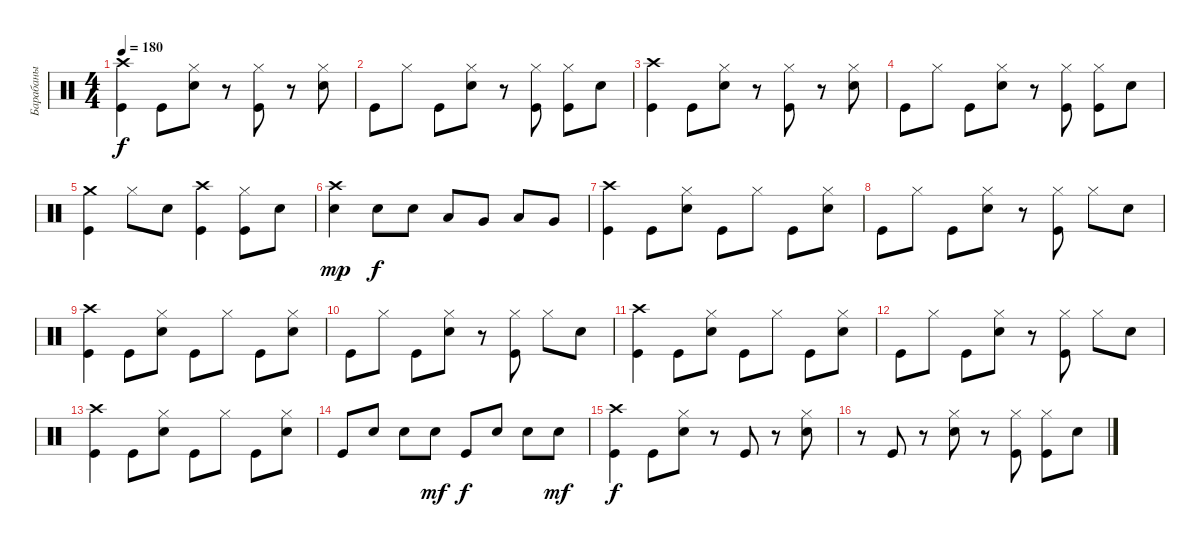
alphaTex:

\track ("Барабаны" "Барабаны") {instrument percussion}
\staff {score}
\articulation defaults
\ts (4 4)
\tempo 180
\clef neutral
\ks c
("Kick (hit)" "Crash high (hit)").4{dy f} "Kick (hit)".8 ("Hi-Hat (closed)" "Electric Snare (hit)").8 r.8 ("Kick (hit)" "Hi-Hat (closed)").8 r.8 ("Hi-Hat (closed)" "Electric Snare (hit)").8 |
"Kick (hit)".8 "Hi-Hat (closed)".8 "Kick (hit)".8 ("Hi-Hat (closed)" "Electric Snare (hit)").8 r.8 ("Hi-Hat (closed)" "Kick (hit)").8 ("Hi-Hat (closed)" "Kick (hit)").8 "Electric Snare (hit)".8 |
("Crash high (hit)" "Kick (hit)").4 "Kick (hit)".8 ("Electric Snare (hit)" "Hi-Hat (closed)").8 r.8 ("Kick (hit)" "Hi-Hat (closed)").8 r.8 ("Hi-Hat (closed)" "Electric Snare (hit)").8 |
"Kick (hit)".8 "Hi-Hat (closed)".8 "Kick (hit)".8 ("Electric Snare (hit)" "Hi-Hat (closed)").8 r.8 ("Hi-Hat (closed)" "Kick (hit)").8 ("Hi-Hat (closed)" "Kick (hit)").8 "Electric Snare (hit)".8 |
("Crash medium (hit)" "Kick (hit)").4 "Hi-Hat (closed)".8 "Electric Snare (hit)".8 ("Kick (hit)" "Crash high (hit)").4 ("Kick (hit)" "Hi-Hat (closed)").8 "Electric Snare (hit)".8 |
("Crash high (hit)" "Electric Snare (hit)").4{dy mp} "Electric Snare (hit)".8{dy f} "Electric Snare (hit)".8 "Low Tom (hit)".8 "Very Low Tom (hit)".8 "Low Floor Tom (hit)".8 "Very Low Tom (hit)".8 |
("Crash high (hit)" "Kick (hit)").4 "Kick (hit)".8 ("Hi-Hat (closed)" "Electric Snare (hit)").8 "Kick (hit)".8 "Hi-Hat (closed)".8 "Kick (hit)".8 ("Electric Snare (hit)" "Hi-Hat (closed)").8 |
"Kick (hit)".8 "Hi-Hat (closed)".8 "Kick (hit)".8 ("Hi-Hat (closed)" "Electric Snare (hit)").8 r.8 ("Kick (hit)" "Hi-Hat (closed)").8 "Hi-Hat (closed)".8 "Electric Snare (hit)".8 |
("Kick (hit)" "Crash high (hit)").4 "Kick (hit)".8 ("Hi-Hat (closed)" "Electric Snare (hit)").8 "Kick (hit)".8 "Hi-Hat (closed)".8 "Kick (hit)".8 ("Hi-Hat (closed)" "Electric Snare (hit)").8 |
"Kick (hit)".8 "Hi-Hat (closed)".8 "Kick (hit)".8 ("Hi-Hat (closed)" "Electric Snare (hit)").8 r.8 ("Hi-Hat (closed)" "Kick (hit)").8 "Hi-Hat (closed)".8 "Electric Snare (hit)".8 |
("Kick (hit)" "Crash high (hit)").4 "Kick (hit)".8 ("Electric Snare (hit)" "Hi-Hat (closed)").8 "Kick (hit)".8 "Hi-Hat (closed)".8 "Kick (hit)".8 ("Electric Snare (hit)" "Hi-Hat (closed)").8 |
"Kick (hit)".8 "Hi-Hat (closed)".8 "Kick (hit)".8 ("Electric Snare (hit)" "Hi-Hat (closed)").8 r.8 ("Hi-Hat (closed)" "Kick (hit)").8 "Hi-Hat (closed)".8 "Electric Snare (hit)".8 |
("Kick (hit)" "Crash high (hit)").4 "Kick (hit)".8 ("Electric Snare (hit)" "Hi-Hat (closed)").8 "Kick (hit)".8 "Hi-Hat (closed)".8 "Kick (hit)".8 ("Electric Snare (hit)" "Hi-Hat (closed)").8 |
"Kick (hit)".8 "Electric Snare (hit)".8 "Electric Snare (hit)".8 "Electric Snare (hit)".8{dy mf} "Kick (hit)".8{dy f} "Electric Snare (hit)".8 "Electric Snare (hit)".8 "Electric Snare (hit)".8{dy mf} |
("Crash high (hit)" "Kick (hit)").4{dy f} "Kick (hit)".8 ("Hi-Hat (closed)" "Electric Snare (hit)").8 r.8 "Kick (hit)".8 r.8 ("Electric Snare (hit)" "Hi-Hat (closed)").8 |
r.8 "Kick (hit)".8 r.8 ("Hi-Hat (closed)" "Electric Snare (hit)").8 r.8 ("Kick (hit)" "Hi-Hat (closed)").8 ("Kick (hit)" "Hi-Hat (closed)").8 "Electric Snare (hit)".8
